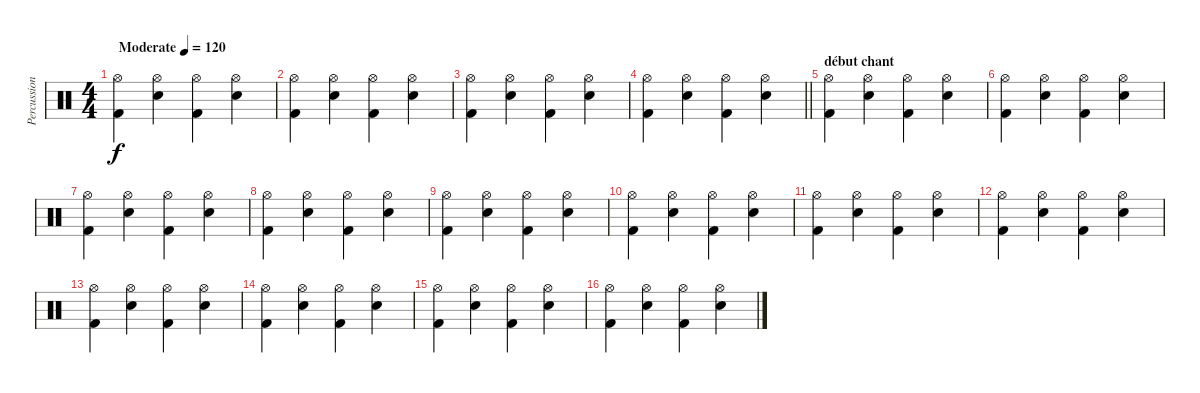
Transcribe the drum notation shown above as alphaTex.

\track ("Percussions" "Percussion") {instrument percussion}
\staff {score}
\articulation defaults
\ts (4 4)
\tempo (120 "Moderate")
\clef neutral
\ks c
("Hi-Hat (open)" "Kick (hit) 2").4{dy f} ("Hi-Hat (open)" "Electric Snare (hit)").4 ("Hi-Hat (open)" "Kick (hit) 2").4 ("Hi-Hat (open)" "Electric Snare (hit)").4 |
("Hi-Hat (open)" "Kick (hit) 2").4 ("Hi-Hat (open)" "Electric Snare (hit)").4 ("Hi-Hat (open)" "Kick (hit) 2").4 ("Hi-Hat (open)" "Electric Snare (hit)").4 |
("Hi-Hat (open)" "Kick (hit) 2").4 ("Hi-Hat (open)" "Electric Snare (hit)").4 ("Hi-Hat (open)" "Kick (hit) 2").4 ("Hi-Hat (open)" "Electric Snare (hit)").4 |
\barLineRight lightlight
("Hi-Hat (open)" "Kick (hit) 2").4 ("Hi-Hat (open)" "Electric Snare (hit)").4 ("Hi-Hat (open)" "Kick (hit) 2").4 ("Hi-Hat (open)" "Electric Snare (hit)").4 |
\section ("" "début chant")
("Hi-Hat (open)" "Kick (hit) 2").4 ("Hi-Hat (open)" "Electric Snare (hit)").4 ("Hi-Hat (open)" "Kick (hit) 2").4 ("Hi-Hat (open)" "Electric Snare (hit)").4 |
("Hi-Hat (open)" "Kick (hit) 2").4 ("Hi-Hat (open)" "Electric Snare (hit)").4 ("Hi-Hat (open)" "Kick (hit) 2").4 ("Hi-Hat (open)" "Electric Snare (hit)").4 |
("Hi-Hat (open)" "Kick (hit) 2").4 ("Hi-Hat (open)" "Electric Snare (hit)").4 ("Hi-Hat (open)" "Kick (hit) 2").4 ("Hi-Hat (open)" "Electric Snare (hit)").4 |
("Hi-Hat (open)" "Kick (hit) 2").4 ("Hi-Hat (open)" "Electric Snare (hit)").4 ("Hi-Hat (open)" "Kick (hit) 2").4 ("Hi-Hat (open)" "Electric Snare (hit)").4 |
("Hi-Hat (open)" "Kick (hit) 2").4 ("Hi-Hat (open)" "Electric Snare (hit)").4 ("Hi-Hat (open)" "Kick (hit) 2").4 ("Hi-Hat (open)" "Electric Snare (hit)").4 |
("Hi-Hat (open)" "Kick (hit) 2").4 ("Hi-Hat (open)" "Electric Snare (hit)").4 ("Hi-Hat (open)" "Kick (hit) 2").4 ("Hi-Hat (open)" "Electric Snare (hit)").4 |
("Hi-Hat (open)" "Kick (hit) 2").4 ("Hi-Hat (open)" "Electric Snare (hit)").4 ("Hi-Hat (open)" "Kick (hit) 2").4 ("Hi-Hat (open)" "Electric Snare (hit)").4 |
("Hi-Hat (open)" "Kick (hit) 2").4 ("Hi-Hat (open)" "Electric Snare (hit)").4 ("Hi-Hat (open)" "Kick (hit) 2").4 ("Hi-Hat (open)" "Electric Snare (hit)").4 |
("Hi-Hat (open)" "Kick (hit) 2").4 ("Hi-Hat (open)" "Electric Snare (hit)").4 ("Hi-Hat (open)" "Kick (hit) 2").4 ("Hi-Hat (open)" "Electric Snare (hit)").4 |
("Hi-Hat (open)" "Kick (hit) 2").4 ("Hi-Hat (open)" "Electric Snare (hit)").4 ("Hi-Hat (open)" "Kick (hit) 2").4 ("Hi-Hat (open)" "Electric Snare (hit)").4 |
("Hi-Hat (open)" "Kick (hit) 2").4 ("Hi-Hat (open)" "Electric Snare (hit)").4 ("Hi-Hat (open)" "Kick (hit) 2").4 ("Hi-Hat (open)" "Electric Snare (hit)").4 |
("Hi-Hat (open)" "Kick (hit) 2").4 ("Hi-Hat (open)" "Electric Snare (hit)").4 ("Hi-Hat (open)" "Kick (hit) 2").4 ("Hi-Hat (open)" "Electric Snare (hit)").4
